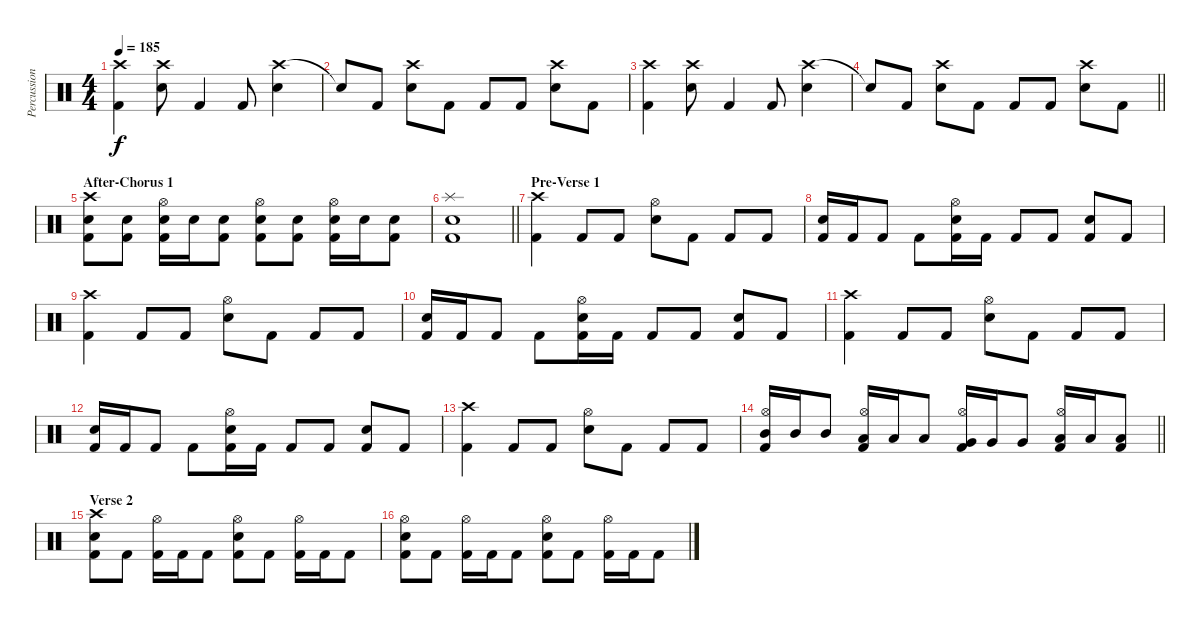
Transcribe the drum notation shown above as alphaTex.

\track ("Percussion" "Percussion") {instrument percussion}
\staff {score}
\articulation defaults
\ts (4 4)
\tempo 185
\clef neutral
\ks c
("Crash high (hit)" "Kick (hit) 2").4{dy f} ("Crash high (hit)" "Snare (hit) 2").8 "Kick (hit) 2".4 "Kick (hit) 2".8 ("Crash high (hit)" "Snare (hit) 2").4 |
"Snare (hit)"{t}.8 "Kick (hit) 2".8 ("Crash high (hit)" "Snare (hit) 2").8 "Kick (hit) 2".8 "Kick (hit) 2".8 "Kick (hit) 2".8 ("Crash high (hit)" "Snare (hit) 2").8 "Kick (hit) 2".8 |
("Crash high (hit)" "Kick (hit) 2").4 ("Crash high (hit)" "Snare (hit) 2").8 "Kick (hit) 2".4 "Kick (hit) 2".8 ("Crash high (hit)" "Snare (hit) 2").4 |
\barLineRight lightlight "Snare (hit)"{t}.8 "Kick (hit) 2".8
("Crash high (hit)" "Snare (hit) 2").8 "Kick (hit) 2".8 "Kick (hit) 2".8 "Kick (hit) 2".8 ("Crash high (hit)" "Snare (hit) 2").8 "Kick (hit) 2".8 |
\section ("" "After-Chorus 1")
("Crash high (hit)" "Snare (hit) 2" "Kick (hit) 2").8 ("Snare (hit) 2" "Kick (hit) 2").8 ("Hi-Hat (open)" "Snare (hit) 2" "Kick (hit) 2").16 "Snare (hit) 2".16 ("Snare (hit) 2" "Kick (hit) 2").8 ("Hi-Hat (open)" "Snare (hit) 2" "Kick (hit) 2").8 ("Snare (hit) 2" "Kick (hit) 2").8 ("Hi-Hat (open)" "Snare (hit) 2" "Kick (hit) 2").16 "Snare (hit) 2".16 ("Snare (hit) 2" "Kick (hit) 2").8 |
\barLineRight lightlight
("Splash (hit)" "Snare (hit) 2" "Kick (hit) 2").1 |
\section ("" "Pre-Verse 1")
("Crash high (hit)" "Kick (hit) 2").4 "Kick (hit) 2".8 "Kick (hit) 2".8 ("Hi-Hat (open)" "Snare (hit) 2").8 "Kick (hit) 2".8 "Kick (hit) 2".8 "Kick (hit) 2".8 |
("Snare (hit) 2" "Kick (hit) 2").16 "Kick (hit) 2".16 "Kick (hit) 2".8 "Kick (hit) 2".8 ("Hi-Hat (open)" "Snare (hit) 2" "Kick (hit) 2").16 "Kick (hit) 2".16 "Kick (hit) 2".8 "Kick (hit) 2".8 ("Snare (hit) 2" "Kick (hit) 2").8 "Kick (hit) 2".8 |
("Crash high (hit)" "Kick (hit) 2").4 "Kick (hit) 2".8 "Kick (hit) 2".8 ("Hi-Hat (open)" "Snare (hit) 2").8 "Kick (hit) 2".8 "Kick (hit) 2".8 "Kick (hit) 2".8 |
("Snare (hit) 2" "Kick (hit) 2").16 "Kick (hit) 2".16 "Kick (hit) 2".8 "Kick (hit) 2".8 ("Hi-Hat (open)" "Snare (hit) 2" "Kick (hit) 2").16 "Kick (hit) 2".16 "Kick (hit) 2".8 "Kick (hit) 2".8 ("Snare (hit) 2" "Kick (hit) 2").8 "Kick (hit) 2".8 |
("Crash high (hit)" "Kick (hit) 2").4 "Kick (hit) 2".8 "Kick (hit) 2".8 ("Hi-Hat (open)" "Snare (hit) 2").8 "Kick (hit) 2".8 "Kick (hit) 2".8 "Kick (hit) 2".8 |
("Snare (hit) 2" "Kick (hit) 2").16 "Kick (hit) 2".16 "Kick (hit) 2".8 "Kick (hit) 2".8 ("Hi-Hat (open)" "Snare (hit) 2" "Kick (hit) 2").16 "Kick (hit) 2".16 "Kick (hit) 2".8 "Kick (hit) 2".8 ("Snare (hit) 2" "Kick (hit) 2").8 "Kick (hit) 2".8 |
("Crash high (hit)" "Kick (hit) 2").4 "Kick (hit) 2".8 "Kick (hit) 2".8 ("Hi-Hat (open)" "Snare (hit) 2").8 "Kick (hit) 2".8 "Kick (hit) 2".8 "Kick (hit) 2".8 |
\barLineRight lightlight
("Hi-Hat (open)" "Mid Tom (hit)" "Kick (hit) 2").16 "Mid Tom (hit)".16 "Mid Tom (hit)".8 ("Hi-Hat (open)" "Low Tom (hit)" "Kick (hit) 2").16 "Low Tom (hit)".16 "Low Tom (hit)".8 ("Hi-Hat (open)" "Very Low Tom (hit)" "Kick (hit) 2").16 "Very Low Tom (hit)".16 "Very Low Tom (hit)".8 ("Hi-Hat (open)" "Low Floor Tom (hit)" "Kick (hit) 2").16 "Low Floor Tom (hit)".16 ("Low Floor Tom (hit)" "Kick (hit) 2").8 |
\section ("" "Verse 2")
("Crash high (hit)" "Snare (hit) 2" "Kick (hit) 2").8 "Kick (hit) 2".8 ("Hi-Hat (open)" "Kick (hit) 2").16 "Kick (hit) 2".16 "Kick (hit) 2".8 ("Hi-Hat (open)" "Snare (hit) 2" "Kick (hit) 2").8 "Kick (hit) 2".8 ("Hi-Hat (open)" "Kick (hit) 2").16 "Kick (hit) 2".16 "Kick (hit) 2".8 |
("Hi-Hat (open)" "Snare (hit) 2" "Kick (hit) 2").8 "Kick (hit) 2".8 ("Hi-Hat (open)" "Kick (hit) 2").16 "Kick (hit) 2".16 "Kick (hit) 2".8 ("Hi-Hat (open)" "Snare (hit) 2" "Kick (hit) 2").8 "Kick (hit) 2".8 ("Hi-Hat (open)" "Kick (hit) 2").16 "Kick (hit) 2".16 "Kick (hit) 2".8
